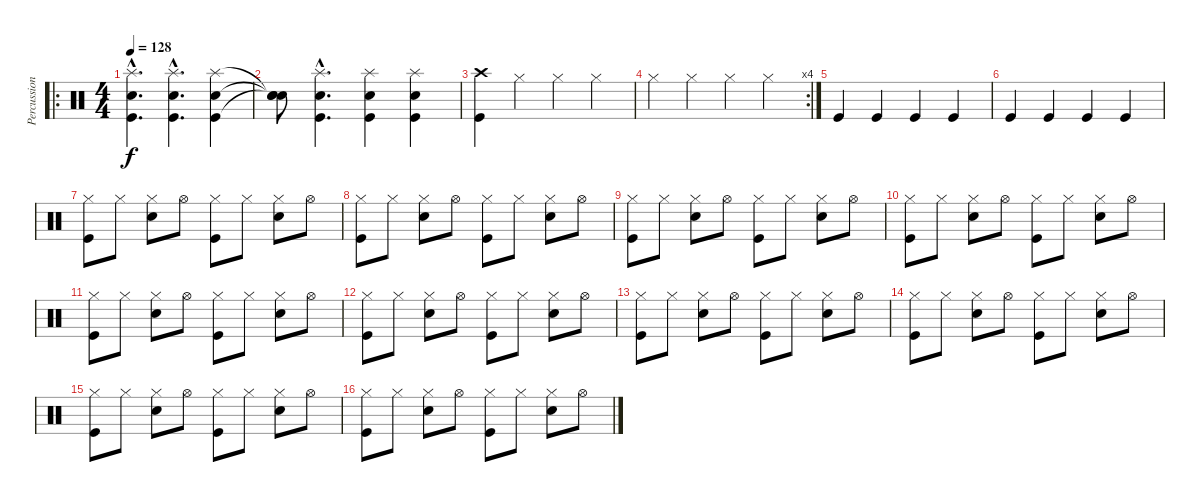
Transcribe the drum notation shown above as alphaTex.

\track ("Percussion" "Percussion") {instrument percussion}
\staff {score}
\articulation defaults
\ro
\ts (4 4)
\tempo 128
\clef neutral
\ks c
("Snare (hit) 2"{hac} "Kick (hit)"{hac} "Splash (hit)"{hac}).4{d dy f} ("Snare (hit) 2"{hac} "Kick (hit)"{hac} "Splash (hit)"{hac}).4{d} ("Snare (hit) 2" "Kick (hit)" "Splash (hit)").4 |
("Snare (hit)"{t} "Snare (hit)"{t} "Snare (hit)"{t}).8 ("Snare (hit) 2"{hac} "Kick (hit)"{hac} "Splash (hit)"{hac}).4{d} ("Snare (hit) 2" "Kick (hit)" "Splash (hit)").4 ("Snare (hit) 2" "Kick (hit)" "Splash (hit)").4 |
("Kick (hit)" "Crash high (hit)").4 "Hi-Hat (closed)".4 "Hi-Hat (closed)".4 "Hi-Hat (closed)".4 |
\rc 4 "Hi-Hat (closed)".4 "Hi-Hat (closed)".4 "Hi-Hat (closed)".4 "Hi-Hat (closed)".4
|
"Kick (hit)".4 "Kick (hit)".4 "Kick (hit)".4 "Kick (hit)".4 |
"Kick (hit)".4 "Kick (hit)".4 "Kick (hit)".4 "Kick (hit)".4 |
("Hi-Hat (closed)" "Kick (hit)").8 "Hi-Hat (closed)".8 ("Hi-Hat (closed)" "Snare (hit) 2").8 "Hi-Hat (open)".8 ("Hi-Hat (closed)" "Kick (hit)").8 "Hi-Hat (closed)".8 ("Hi-Hat (closed)" "Snare (hit) 2").8 "Hi-Hat (open)".8 |
("Hi-Hat (closed)" "Kick (hit)").8 "Hi-Hat (closed)".8 ("Hi-Hat (closed)" "Snare (hit) 2").8 "Hi-Hat (open)".8 ("Hi-Hat (closed)" "Kick (hit)").8 "Hi-Hat (closed)".8 ("Hi-Hat (closed)" "Snare (hit) 2").8 "Hi-Hat (open)".8 |
("Hi-Hat (closed)" "Kick (hit)").8 "Hi-Hat (closed)".8 ("Hi-Hat (closed)" "Snare (hit) 2").8 "Hi-Hat (open)".8 ("Hi-Hat (closed)" "Kick (hit)").8 "Hi-Hat (closed)".8 ("Hi-Hat (closed)" "Snare (hit) 2").8 "Hi-Hat (open)".8 |
("Hi-Hat (closed)" "Kick (hit)").8 "Hi-Hat (closed)".8 ("Hi-Hat (closed)" "Snare (hit) 2").8 "Hi-Hat (open)".8 ("Hi-Hat (closed)" "Kick (hit)").8 "Hi-Hat (closed)".8 ("Hi-Hat (closed)" "Snare (hit) 2").8 "Hi-Hat (open)".8 |
("Hi-Hat (closed)" "Kick (hit)").8 "Hi-Hat (closed)".8 ("Hi-Hat (closed)" "Snare (hit) 2").8 "Hi-Hat (open)".8 ("Hi-Hat (closed)" "Kick (hit)").8 "Hi-Hat (closed)".8 ("Hi-Hat (closed)" "Snare (hit) 2").8 "Hi-Hat (open)".8 |
("Hi-Hat (closed)" "Kick (hit)").8 "Hi-Hat (closed)".8 ("Hi-Hat (closed)" "Snare (hit) 2").8 "Hi-Hat (open)".8 ("Hi-Hat (closed)" "Kick (hit)").8 "Hi-Hat (closed)".8 ("Hi-Hat (closed)" "Snare (hit) 2").8 "Hi-Hat (open)".8 |
("Hi-Hat (closed)" "Kick (hit)").8 "Hi-Hat (closed)".8 ("Hi-Hat (closed)" "Snare (hit) 2").8 "Hi-Hat (open)".8 ("Hi-Hat (closed)" "Kick (hit)").8 "Hi-Hat (closed)".8 ("Hi-Hat (closed)" "Snare (hit) 2").8 "Hi-Hat (open)".8 |
("Hi-Hat (closed)" "Kick (hit)").8 "Hi-Hat (closed)".8 ("Hi-Hat (closed)" "Snare (hit) 2").8 "Hi-Hat (open)".8 ("Hi-Hat (closed)" "Kick (hit)").8 "Hi-Hat (closed)".8 ("Hi-Hat (closed)" "Snare (hit) 2").8 "Hi-Hat (open)".8 |
("Hi-Hat (closed)" "Kick (hit)").8 "Hi-Hat (closed)".8 ("Hi-Hat (closed)" "Snare (hit) 2").8 "Hi-Hat (open)".8 ("Hi-Hat (closed)" "Kick (hit)").8 "Hi-Hat (closed)".8 ("Hi-Hat (closed)" "Snare (hit) 2").8 "Hi-Hat (open)".8 |
("Hi-Hat (closed)" "Kick (hit)").8 "Hi-Hat (closed)".8 ("Hi-Hat (closed)" "Snare (hit) 2").8 "Hi-Hat (open)".8 ("Hi-Hat (closed)" "Kick (hit)").8 "Hi-Hat (closed)".8 ("Hi-Hat (closed)" "Snare (hit) 2").8 "Hi-Hat (open)".8
